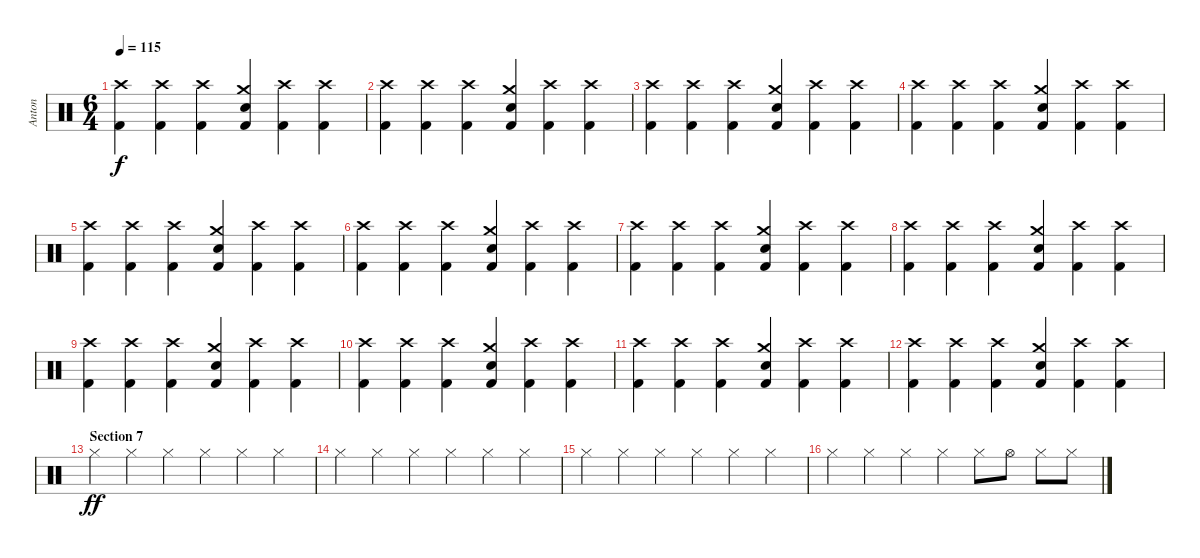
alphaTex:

\track ("Anton" "Anton") {instrument percussion}
\staff {score}
\articulation defaults
\ts (6 4)
\tempo 115
\clef neutral
\ks c
("Crash high (hit)" "Kick (hit) 2").4{dy f} ("Crash high (hit)" "Kick (hit) 2").4 ("Crash high (hit)" "Kick (hit) 2").4 ("Crash medium (hit)" "Electric Snare (hit)" "Kick (hit) 2").4 ("Crash high (hit)" "Kick (hit) 2").4 ("Crash high (hit)" "Kick (hit) 2").4 |
("Crash high (hit)" "Kick (hit) 2").4 ("Crash high (hit)" "Kick (hit) 2").4 ("Crash high (hit)" "Kick (hit) 2").4 ("Crash medium (hit)" "Electric Snare (hit)" "Kick (hit) 2").4 ("Crash high (hit)" "Kick (hit) 2").4 ("Crash high (hit)" "Kick (hit) 2").4 |
("Crash high (hit)" "Kick (hit) 2").4 ("Crash high (hit)" "Kick (hit) 2").4 ("Crash high (hit)" "Kick (hit) 2").4 ("Crash medium (hit)" "Electric Snare (hit)" "Kick (hit) 2").4 ("Crash high (hit)" "Kick (hit) 2").4 ("Crash high (hit)" "Kick (hit) 2").4 |
("Crash high (hit)" "Kick (hit) 2").4 ("Crash high (hit)" "Kick (hit) 2").4 ("Crash high (hit)" "Kick (hit) 2").4 ("Crash medium (hit)" "Electric Snare (hit)" "Kick (hit) 2").4 ("Crash high (hit)" "Kick (hit) 2").4 ("Crash high (hit)" "Kick (hit) 2").4 |
("Crash high (hit)" "Kick (hit) 2").4 ("Crash high (hit)" "Kick (hit) 2").4 ("Crash high (hit)" "Kick (hit) 2").4 ("Crash medium (hit)" "Electric Snare (hit)" "Kick (hit) 2").4 ("Crash high (hit)" "Kick (hit) 2").4 ("Crash high (hit)" "Kick (hit) 2").4 |
("Crash high (hit)" "Kick (hit) 2").4 ("Crash high (hit)" "Kick (hit) 2").4 ("Crash high (hit)" "Kick (hit) 2").4 ("Crash medium (hit)" "Electric Snare (hit)" "Kick (hit) 2").4 ("Crash high (hit)" "Kick (hit) 2").4 ("Crash high (hit)" "Kick (hit) 2").4 |
("Crash high (hit)" "Kick (hit) 2").4 ("Crash high (hit)" "Kick (hit) 2").4 ("Crash high (hit)" "Kick (hit) 2").4 ("Crash medium (hit)" "Electric Snare (hit)" "Kick (hit) 2").4 ("Crash high (hit)" "Kick (hit) 2").4 ("Crash high (hit)" "Kick (hit) 2").4 |
("Crash high (hit)" "Kick (hit) 2").4 ("Crash high (hit)" "Kick (hit) 2").4 ("Crash high (hit)" "Kick (hit) 2").4 ("Crash medium (hit)" "Electric Snare (hit)" "Kick (hit) 2").4 ("Crash high (hit)" "Kick (hit) 2").4 ("Crash high (hit)" "Kick (hit) 2").4 |
("Crash high (hit)" "Kick (hit) 2").4 ("Crash high (hit)" "Kick (hit) 2").4 ("Crash high (hit)" "Kick (hit) 2").4 ("Crash medium (hit)" "Electric Snare (hit)" "Kick (hit) 2").4 ("Crash high (hit)" "Kick (hit) 2").4 ("Crash high (hit)" "Kick (hit) 2").4 |
("Crash high (hit)" "Kick (hit) 2").4 ("Crash high (hit)" "Kick (hit) 2").4 ("Crash high (hit)" "Kick (hit) 2").4 ("Crash medium (hit)" "Electric Snare (hit)" "Kick (hit) 2").4 ("Crash high (hit)" "Kick (hit) 2").4 ("Crash high (hit)" "Kick (hit) 2").4 |
("Crash high (hit)" "Kick (hit) 2").4 ("Crash high (hit)" "Kick (hit) 2").4 ("Crash high (hit)" "Kick (hit) 2").4 ("Crash medium (hit)" "Electric Snare (hit)" "Kick (hit) 2").4 ("Crash high (hit)" "Kick (hit) 2").4 ("Crash high (hit)" "Kick (hit) 2").4 |
("Crash high (hit)" "Kick (hit) 2").4 ("Crash high (hit)" "Kick (hit) 2").4 ("Crash high (hit)" "Kick (hit) 2").4 ("Crash medium (hit)" "Electric Snare (hit)" "Kick (hit) 2").4 ("Crash high (hit)" "Kick (hit) 2").4 ("Crash high (hit)" "Kick (hit) 2").4 |
\section ("" "Section 7")
"Hi-Hat (closed)".4{dy ff} "Hi-Hat (closed)".4 "Hi-Hat (closed)".4 "Hi-Hat (closed)".4 "Hi-Hat (closed)".4 "Hi-Hat (closed)".4 |
"Hi-Hat (closed)".4 "Hi-Hat (closed)".4 "Hi-Hat (closed)".4 "Hi-Hat (closed)".4 "Hi-Hat (closed)".4 "Hi-Hat (closed)".4 |
"Hi-Hat (closed)".4 "Hi-Hat (closed)".4 "Hi-Hat (closed)".4 "Hi-Hat (closed)".4 "Hi-Hat (closed)".4 "Hi-Hat (closed)".4 |
"Hi-Hat (closed)".4 "Hi-Hat (closed)".4 "Hi-Hat (closed)".4 "Hi-Hat (closed)".4 "Hi-Hat (closed)".8 "Hi-Hat (open)".8 "Hi-Hat (closed)".8 "Hi-Hat (closed)".8
